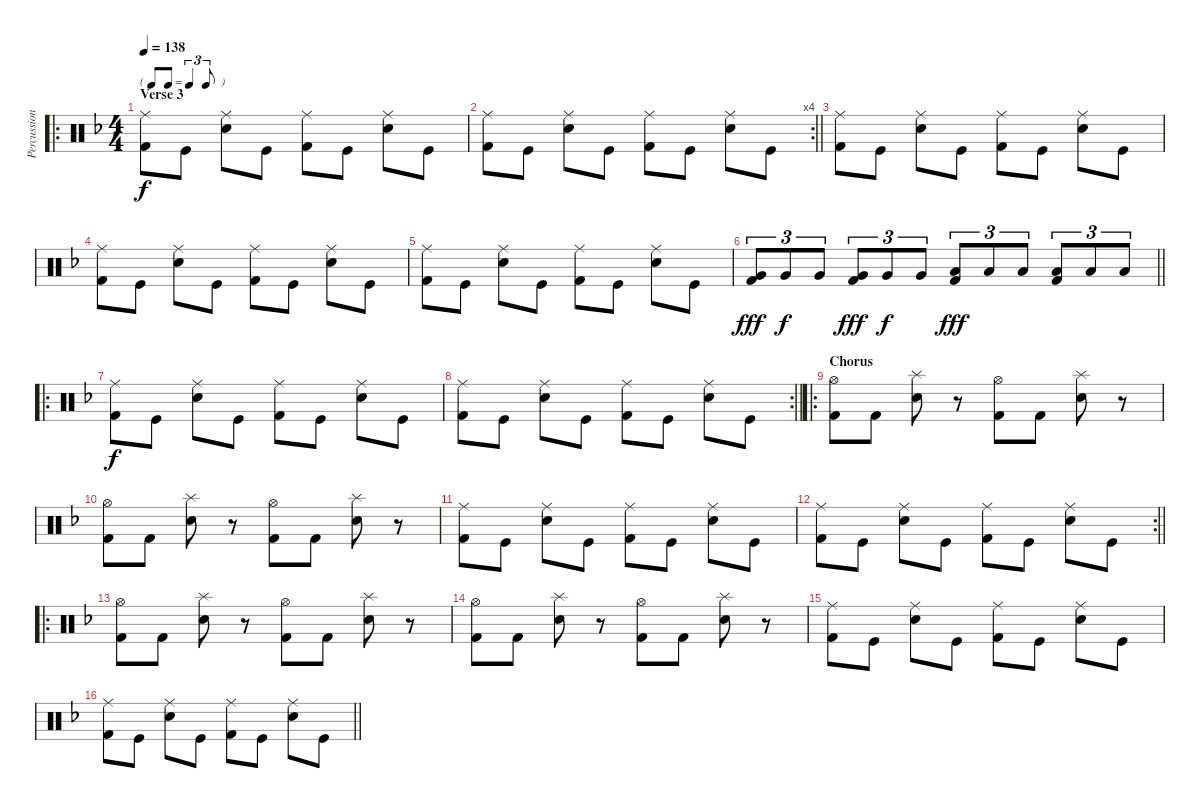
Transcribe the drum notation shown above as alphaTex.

\track ("Percussion" "Percussion") {instrument percussion}
\staff {score}
\articulation defaults
\ro
\ts (4 4)
\tf triplet8th
\section ("" "Verse 3")
\tempo 138
\clef neutral
\ks f
("Ride (middle)" "Kick (hit) 2").8{dy f} "Kick (hit)".8 ("Ride (middle)" "Snare (hit) 2").8 "Kick (hit)".8 ("Ride (middle)" "Kick (hit) 2").8 "Kick (hit)".8 ("Ride (middle)" "Snare (hit) 2").8 "Kick (hit)".8 |
\rc 4
\barLineRight lightlight
("Ride (middle)" "Kick (hit) 2").8 "Kick (hit)".8 ("Ride (middle)" "Snare (hit) 2").8 "Kick (hit)".8 ("Ride (middle)" "Kick (hit) 2").8 "Kick (hit)".8 ("Ride (middle)" "Snare (hit) 2").8 "Kick (hit)".8 |
("Ride (middle)" "Kick (hit) 2").8 "Kick (hit)".8 ("Ride (middle)" "Snare (hit) 2").8 "Kick (hit)".8 ("Ride (middle)" "Kick (hit) 2").8 "Kick (hit)".8 ("Ride (middle)" "Snare (hit) 2").8 "Kick (hit)".8 |
("Ride (middle)" "Kick (hit) 2").8 "Kick (hit)".8 ("Ride (middle)" "Snare (hit) 2").8 "Kick (hit)".8 ("Ride (middle)" "Kick (hit) 2").8 "Kick (hit)".8 ("Ride (middle)" "Snare (hit) 2").8 "Kick (hit)".8 |
("Ride (middle)" "Kick (hit) 2").8 "Kick (hit)".8 ("Ride (middle)" "Snare (hit) 2").8 "Kick (hit)".8 ("Ride (middle)" "Kick (hit) 2").8 "Kick (hit)".8 ("Ride (middle)" "Snare (hit) 2").8 "Kick (hit)".8 |
\barLineRight lightlight
("Very Low Tom (hit)" "Kick (hit) 2").8{tu (3 2) dy fff} "Very Low Tom (hit)".8{tu (3 2) dy f} "Very Low Tom (hit)".8{tu (3 2)} ("Very Low Tom (hit)" "Kick (hit) 2").8{tu (3 2) dy fff} "Very Low Tom (hit)".8{tu (3 2) dy f} "Very Low Tom (hit)".8{tu (3 2)} ("Low Floor Tom (hit)" "Kick (hit) 2").8{tu (3 2) dy fff} "Low Floor Tom (hit)".8{tu (3 2)} "Low Floor Tom (hit)".8{tu (3 2)} ("Low Floor Tom (hit)" "Kick (hit) 2").8{tu (3 2)} "Low Floor Tom (hit)".8{tu (3 2)} "Low Floor Tom (hit)".8{tu (3 2)} |
\ro
("Ride (middle)" "Kick (hit) 2").8{dy f} "Kick (hit)".8 ("Ride (middle)" "Snare (hit) 2").8 "Kick (hit)".8 ("Ride (middle)" "Kick (hit) 2").8 "Kick (hit)".8 ("Ride (middle)" "Snare (hit) 2").8 "Kick (hit)".8 |
\rc 2
\barLineRight lightlight
("Ride (middle)" "Kick (hit) 2").8 "Kick (hit)".8 ("Ride (middle)" "Snare (hit) 2").8 "Kick (hit)".8 ("Ride (middle)" "Kick (hit) 2").8 "Kick (hit)".8 ("Ride (middle)" "Snare (hit) 2").8 "Kick (hit)".8 |
\ro
\section ("" "Chorus")
("Hi-Hat (open)" "Kick (hit) 2").8 "Kick (hit) 2".8 ("Splash (hit)" "Snare (hit) 2").8 r.8 ("Hi-Hat (open)" "Kick (hit) 2").8 "Kick (hit) 2".8 ("Splash (hit)" "Snare (hit) 2").8 r.8 |
("Hi-Hat (open)" "Kick (hit) 2").8 "Kick (hit) 2".8 ("Splash (hit)" "Snare (hit) 2").8 r.8 ("Hi-Hat (open)" "Kick (hit) 2").8 "Kick (hit) 2".8 ("Splash (hit)" "Snare (hit) 2").8 r.8 |
("Ride (middle)" "Kick (hit) 2").8 "Kick (hit)".8 ("Ride (middle)" "Snare (hit) 2").8 "Kick (hit)".8 ("Ride (middle)" "Kick (hit) 2").8 "Kick (hit)".8 ("Ride (middle)" "Snare (hit) 2").8 "Kick (hit)".8 |
\rc 2
\barLineRight lightlight
("Ride (middle)" "Kick (hit) 2").8 "Kick (hit)".8 ("Ride (middle)" "Snare (hit) 2").8 "Kick (hit)".8 ("Ride (middle)" "Kick (hit) 2").8 "Kick (hit)".8 ("Ride (middle)" "Snare (hit) 2").8 "Kick (hit)".8 |
\ro
("Hi-Hat (open)" "Kick (hit) 2").8 "Kick (hit) 2".8 ("Splash (hit)" "Snare (hit) 2").8 r.8 ("Hi-Hat (open)" "Kick (hit) 2").8 "Kick (hit) 2".8 ("Splash (hit)" "Snare (hit) 2").8 r.8 |
("Hi-Hat (open)" "Kick (hit) 2").8 "Kick (hit) 2".8 ("Splash (hit)" "Snare (hit) 2").8 r.8 ("Hi-Hat (open)" "Kick (hit) 2").8 "Kick (hit) 2".8 ("Splash (hit)" "Snare (hit) 2").8 r.8 |
("Ride (middle)" "Kick (hit) 2").8 "Kick (hit)".8 ("Ride (middle)" "Snare (hit) 2").8 "Kick (hit)".8 ("Ride (middle)" "Kick (hit) 2").8 "Kick (hit)".8 ("Ride (middle)" "Snare (hit) 2").8 "Kick (hit)".8 |
\barLineRight lightlight
("Ride (middle)" "Kick (hit) 2").8 "Kick (hit)".8 ("Ride (middle)" "Snare (hit) 2").8 "Kick (hit)".8 ("Ride (middle)" "Kick (hit) 2").8 "Kick (hit)".8 ("Ride (middle)" "Snare (hit) 2").8 "Kick (hit)".8
